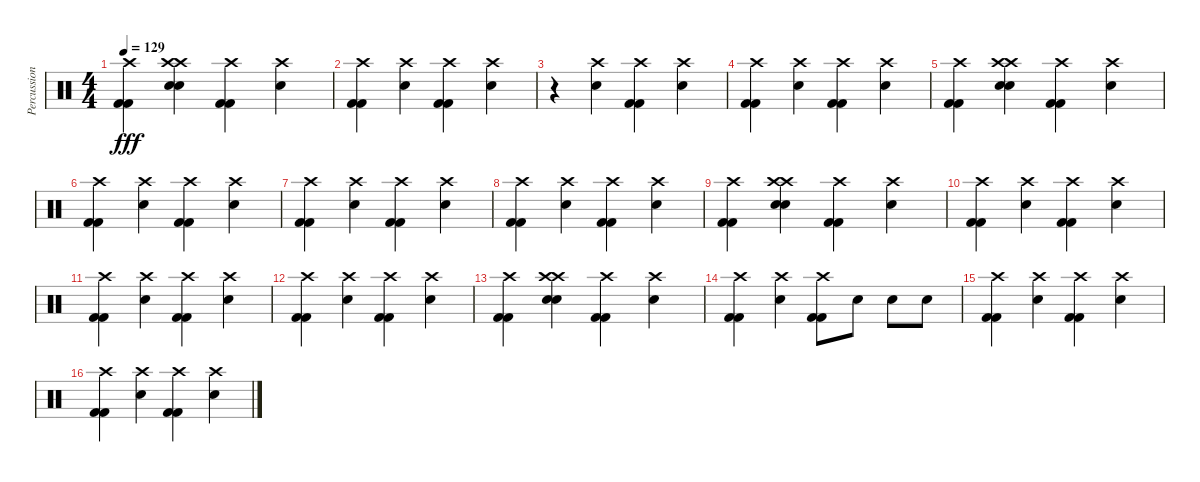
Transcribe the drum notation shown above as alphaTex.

\track ("Percussioni" "Percussion") {instrument percussion}
\staff {score}
\articulation defaults
\ts (4 4)
\tempo 129
\clef neutral
\ks c
("Crash high (hit)" "Kick (hit) 2" "Kick (hit) 2").4{dy fff} ("Crash high (hit)" "Crash high (hit)" "Snare (hit) 2" "Snare (hit) 2").4 ("Crash high (hit)" "Kick (hit) 2" "Kick (hit) 2").4 ("Crash high (hit)" "Snare (hit) 2").4 |
("Crash high (hit)" "Kick (hit) 2" "Kick (hit) 2").4 ("Crash high (hit)" "Snare (hit) 2").4 ("Crash high (hit)" "Kick (hit) 2" "Kick (hit) 2").4 ("Crash high (hit)" "Snare (hit) 2").4 |
r.4 ("Crash high (hit)" "Snare (hit) 2").4 ("Crash high (hit)" "Kick (hit) 2" "Kick (hit) 2").4 ("Crash high (hit)" "Snare (hit) 2").4 |
("Crash high (hit)" "Kick (hit) 2" "Kick (hit) 2").4 ("Crash high (hit)" "Snare (hit) 2").4 ("Crash high (hit)" "Kick (hit) 2" "Kick (hit) 2").4 ("Crash high (hit)" "Snare (hit) 2").4 |
("Crash high (hit)" "Kick (hit) 2" "Kick (hit) 2").4 ("Crash high (hit)" "Crash high (hit)" "Snare (hit) 2" "Snare (hit) 2").4 ("Crash high (hit)" "Kick (hit) 2" "Kick (hit) 2").4 ("Crash high (hit)" "Snare (hit) 2").4 |
("Crash high (hit)" "Kick (hit) 2" "Kick (hit) 2").4 ("Crash high (hit)" "Snare (hit) 2").4 ("Crash high (hit)" "Kick (hit) 2" "Kick (hit) 2").4 ("Crash high (hit)" "Snare (hit) 2").4 |
("Crash high (hit)" "Kick (hit) 2" "Kick (hit) 2").4 ("Crash high (hit)" "Snare (hit) 2").4 ("Crash high (hit)" "Kick (hit) 2" "Kick (hit) 2").4 ("Crash high (hit)" "Snare (hit) 2").4 |
("Crash high (hit)" "Kick (hit) 2" "Kick (hit) 2").4 ("Crash high (hit)" "Snare (hit) 2").4 ("Crash high (hit)" "Kick (hit) 2" "Kick (hit) 2").4 ("Crash high (hit)" "Snare (hit) 2").4 |
("Crash high (hit)" "Kick (hit) 2" "Kick (hit) 2").4 ("Crash high (hit)" "Crash high (hit)" "Snare (hit) 2" "Snare (hit) 2").4 ("Crash high (hit)" "Kick (hit) 2" "Kick (hit) 2").4 ("Crash high (hit)" "Snare (hit) 2").4 |
("Crash high (hit)" "Kick (hit) 2" "Kick (hit) 2").4 ("Crash high (hit)" "Snare (hit) 2").4 ("Crash high (hit)" "Kick (hit) 2" "Kick (hit) 2").4 ("Crash high (hit)" "Snare (hit) 2").4 |
("Crash high (hit)" "Kick (hit) 2" "Kick (hit) 2").4 ("Crash high (hit)" "Snare (hit) 2").4 ("Crash high (hit)" "Kick (hit) 2" "Kick (hit) 2").4 ("Crash high (hit)" "Snare (hit) 2").4 |
("Crash high (hit)" "Kick (hit) 2" "Kick (hit) 2").4 ("Crash high (hit)" "Snare (hit) 2").4 ("Crash high (hit)" "Kick (hit) 2" "Kick (hit) 2").4 ("Crash high (hit)" "Snare (hit) 2").4 |
("Crash high (hit)" "Kick (hit) 2" "Kick (hit) 2").4 ("Crash high (hit)" "Crash high (hit)" "Snare (hit) 2" "Snare (hit) 2").4 ("Crash high (hit)" "Kick (hit) 2" "Kick (hit) 2").4 ("Crash high (hit)" "Snare (hit) 2").4 |
("Crash high (hit)" "Kick (hit) 2" "Kick (hit) 2").4 ("Crash high (hit)" "Snare (hit) 2").4 ("Crash high (hit)" "Kick (hit) 2" "Kick (hit) 2").8 "Snare (hit) 2".8 "Snare (hit) 2".8 "Snare (hit) 2".8 |
("Crash high (hit)" "Kick (hit) 2" "Kick (hit) 2").4 ("Crash high (hit)" "Snare (hit) 2").4 ("Crash high (hit)" "Kick (hit) 2" "Kick (hit) 2").4 ("Crash high (hit)" "Snare (hit) 2").4 |
("Crash high (hit)" "Kick (hit) 2" "Kick (hit) 2").4 ("Crash high (hit)" "Snare (hit) 2").4 ("Crash high (hit)" "Kick (hit) 2" "Kick (hit) 2").4 ("Crash high (hit)" "Snare (hit) 2").4
